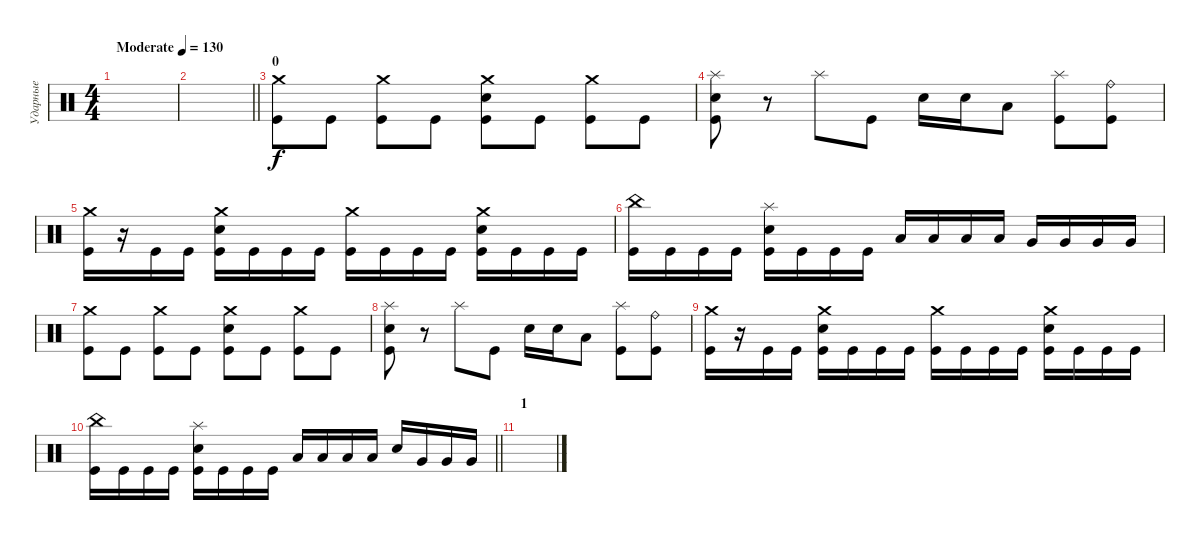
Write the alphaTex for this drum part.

\track ("Ударные" "Ударные") {instrument percussion}
\staff {score}
\articulation defaults
\ts (4 4)
\tempo (130 "Moderate")
\clef neutral
\ks c
|
\barLineRight lightlight
|
\section ("" "0")
("Crash medium (hit)" "Kick (hit)").8 "Kick (hit)".8 ("Crash medium (hit)" "Kick (hit)").8 "Kick (hit)".8 ("Crash medium (hit)" "Electric Snare (hit)" "Kick (hit)").8 "Kick (hit)".8 ("Crash medium (hit)" "Kick (hit)").8 "Kick (hit)".8 |
("Splash (hit)" "Electric Snare (hit)" "Kick (hit)").8 r.8 "Splash (hit)".8 "Kick (hit)".8 "Electric Snare (hit)".16 "Electric Snare (hit)".16 "Low Tom (hit)".8 ("Splash (hit)" "Kick (hit)").8 ("Ride (bell)" "Kick (hit)").8 |
("Crash medium (hit)" "Kick (hit)").16 r.16 "Kick (hit)".16 "Kick (hit)".16 ("Crash medium (hit)" "Electric Snare (hit)" "Kick (hit)").16 "Kick (hit)".16 "Kick (hit)".16 "Kick (hit)".16 ("Crash medium (hit)" "Kick (hit)").16 "Kick (hit)".16 "Kick (hit)".16 "Kick (hit)".16 ("Crash medium (hit)" "Electric Snare (hit)" "Kick (hit)").16 "Kick (hit)".16 "Kick (hit)".16 "Kick (hit)".16 |
("China (hit)" "Kick (hit)").16 "Kick (hit)".16 "Kick (hit)".16 "Kick (hit)".16 ("Splash (hit)" "Electric Snare (hit)" "Kick (hit)").16 "Kick (hit)".16 "Kick (hit)".16 "Kick (hit)".16 "Low Tom (hit)".16 "Low Tom (hit)".16 "Low Tom (hit)".16 "Low Tom (hit)".16 "Very Low Tom (hit)".16 "Very Low Tom (hit)".16 "Very Low Tom (hit)".16 "Very Low Tom (hit)".16 |
("Crash medium (hit)" "Kick (hit)").8 "Kick (hit)".8 ("Crash medium (hit)" "Kick (hit)").8 "Kick (hit)".8 ("Crash medium (hit)" "Electric Snare (hit)" "Kick (hit)").8 "Kick (hit)".8 ("Crash medium (hit)" "Kick (hit)").8 "Kick (hit)".8 |
("Splash (hit)" "Electric Snare (hit)" "Kick (hit)").8 r.8 "Splash (hit)".8 "Kick (hit)".8 "Electric Snare (hit)".16 "Electric Snare (hit)".16 "Low Tom (hit)".8 ("Splash (hit)" "Kick (hit)").8 ("Ride (bell)" "Kick (hit)").8 |
("Crash medium (hit)" "Kick (hit)").16 r.16 "Kick (hit)".16 "Kick (hit)".16 ("Crash medium (hit)" "Electric Snare (hit)" "Kick (hit)").16 "Kick (hit)".16 "Kick (hit)".16 "Kick (hit)".16 ("Crash medium (hit)" "Kick (hit)").16 "Kick (hit)".16 "Kick (hit)".16 "Kick (hit)".16 ("Crash medium (hit)" "Electric Snare (hit)" "Kick (hit)").16 "Kick (hit)".16 "Kick (hit)".16 "Kick (hit)".16 |
\barLineRight lightlight
("China (hit)" "Kick (hit)").16 "Kick (hit)".16 "Kick (hit)".16 "Kick (hit)".16 ("Splash (hit)" "Electric Snare (hit)" "Kick (hit)").16 "Kick (hit)".16 "Kick (hit)".16 "Kick (hit)".16 "Low Tom (hit)".16 "Low Tom (hit)".16 "Low Tom (hit)".16 "Low Tom (hit)".16 "Electric Snare (hit)".16 "Very Low Tom (hit)".16 "Very Low Tom (hit)".16 "Very Low Tom (hit)".16 |
\section ("" "1")
